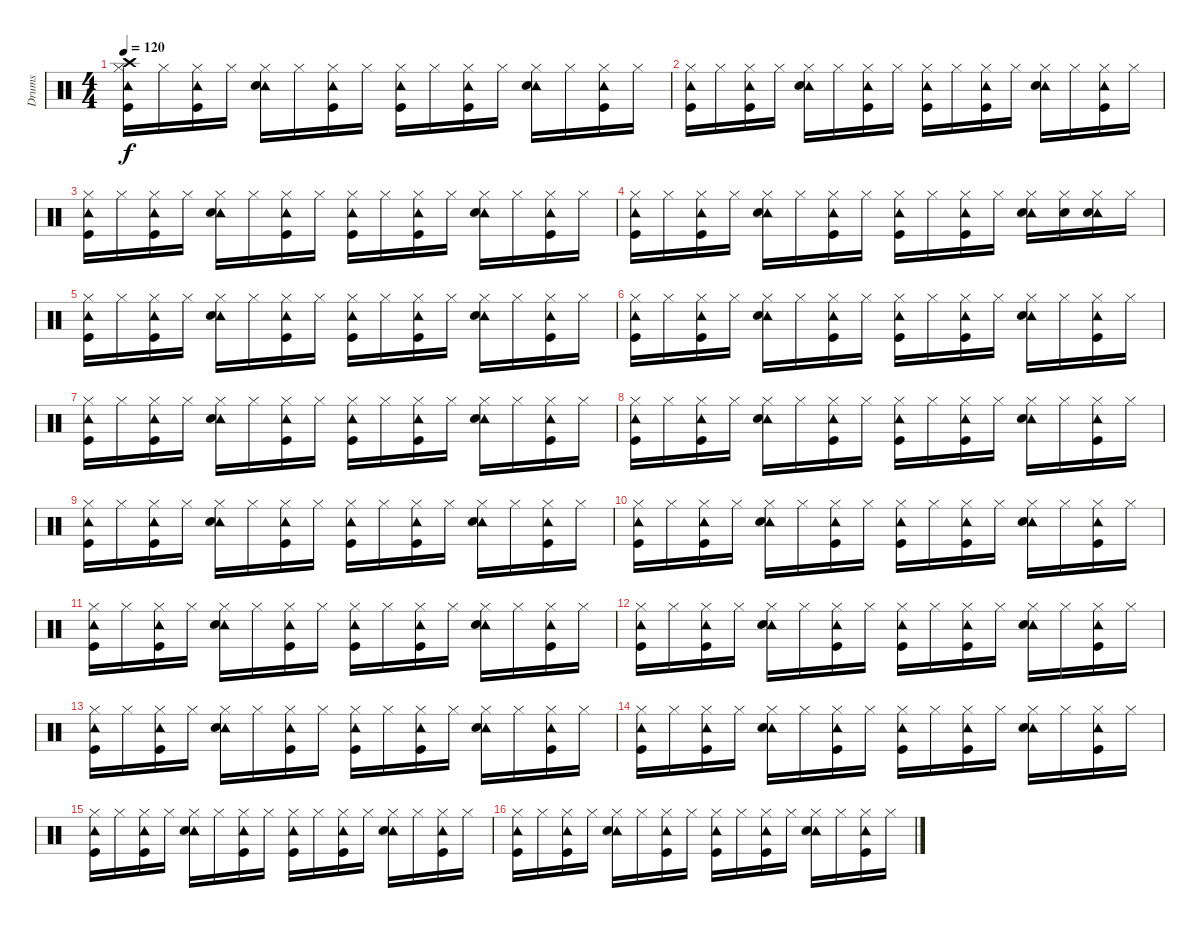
\track ("Drums" "Drums") {instrument percussion}
\staff {score}
\articulation defaults
\ts (4 4)
\tempo 120
\clef neutral
\ks c
("Crash high (hit)" "Hi-Hat (closed)" "Tambourine (hit)" "Kick (hit)").16{dy f} "Hi-Hat (closed)".16 ("Hi-Hat (closed)" "Tambourine (hit)" "Kick (hit)").16 "Hi-Hat (closed)".16 ("Hi-Hat (closed)" "Tambourine (hit)" "Snare (hit) 2").16 "Hi-Hat (closed)".16 ("Hi-Hat (closed)" "Tambourine (hit)" "Kick (hit)").16 "Hi-Hat (closed)".16 ("Hi-Hat (closed)" "Tambourine (hit)" "Kick (hit)").16 "Hi-Hat (closed)".16 ("Hi-Hat (closed)" "Tambourine (hit)" "Kick (hit)").16 "Hi-Hat (closed)".16 ("Hi-Hat (closed)" "Tambourine (hit)" "Snare (hit) 2").16 "Hi-Hat (closed)".16 ("Hi-Hat (closed)" "Tambourine (hit)" "Kick (hit)").16 "Hi-Hat (closed)".16 |
("Hi-Hat (closed)" "Tambourine (hit)" "Kick (hit)").16 "Hi-Hat (closed)".16 ("Hi-Hat (closed)" "Tambourine (hit)" "Kick (hit)").16 "Hi-Hat (closed)".16 ("Hi-Hat (closed)" "Tambourine (hit)" "Snare (hit) 2").16 "Hi-Hat (closed)".16 ("Hi-Hat (closed)" "Tambourine (hit)" "Kick (hit)").16 "Hi-Hat (closed)".16 ("Hi-Hat (closed)" "Tambourine (hit)" "Kick (hit)").16 "Hi-Hat (closed)".16 ("Hi-Hat (closed)" "Tambourine (hit)" "Kick (hit)").16 "Hi-Hat (closed)".16 ("Hi-Hat (closed)" "Tambourine (hit)" "Snare (hit) 2").16 "Hi-Hat (closed)".16 ("Hi-Hat (closed)" "Tambourine (hit)" "Kick (hit)").16 "Hi-Hat (closed)".16 |
("Hi-Hat (closed)" "Tambourine (hit)" "Kick (hit)").16 "Hi-Hat (closed)".16 ("Hi-Hat (closed)" "Tambourine (hit)" "Kick (hit)").16 "Hi-Hat (closed)".16 ("Hi-Hat (closed)" "Tambourine (hit)" "Snare (hit) 2").16 "Hi-Hat (closed)".16 ("Hi-Hat (closed)" "Tambourine (hit)" "Kick (hit)").16 "Hi-Hat (closed)".16 ("Hi-Hat (closed)" "Tambourine (hit)" "Kick (hit)").16 "Hi-Hat (closed)".16 ("Hi-Hat (closed)" "Tambourine (hit)" "Kick (hit)").16 "Hi-Hat (closed)".16 ("Hi-Hat (closed)" "Tambourine (hit)" "Snare (hit) 2").16 "Hi-Hat (closed)".16 ("Hi-Hat (closed)" "Tambourine (hit)" "Kick (hit)").16 "Hi-Hat (closed)".16 |
("Hi-Hat (closed)" "Tambourine (hit)" "Kick (hit)").16 "Hi-Hat (closed)".16 ("Hi-Hat (closed)" "Tambourine (hit)" "Kick (hit)").16 "Hi-Hat (closed)".16 ("Hi-Hat (closed)" "Tambourine (hit)" "Snare (hit) 2").16 "Hi-Hat (closed)".16 ("Hi-Hat (closed)" "Tambourine (hit)" "Kick (hit)").16 "Hi-Hat (closed)".16 ("Hi-Hat (closed)" "Tambourine (hit)" "Kick (hit)").16 "Hi-Hat (closed)".16 ("Hi-Hat (closed)" "Tambourine (hit)" "Kick (hit)").16 "Hi-Hat (closed)".16 ("Hi-Hat (closed)" "Tambourine (hit)" "Snare (hit) 2").16 ("Hi-Hat (closed)" "Snare (hit) 2").16 ("Hi-Hat (closed)" "Tambourine (hit)" "Snare (hit) 2").16 "Hi-Hat (closed)".16 |
("Hi-Hat (closed)" "Tambourine (hit)" "Kick (hit)").16 "Hi-Hat (closed)".16 ("Hi-Hat (closed)" "Tambourine (hit)" "Kick (hit)").16 "Hi-Hat (closed)".16 ("Hi-Hat (closed)" "Tambourine (hit)" "Snare (hit) 2").16 "Hi-Hat (closed)".16 ("Hi-Hat (closed)" "Tambourine (hit)" "Kick (hit)").16 "Hi-Hat (closed)".16 ("Hi-Hat (closed)" "Tambourine (hit)" "Kick (hit)").16 "Hi-Hat (closed)".16 ("Hi-Hat (closed)" "Tambourine (hit)" "Kick (hit)").16 "Hi-Hat (closed)".16 ("Hi-Hat (closed)" "Tambourine (hit)" "Snare (hit) 2").16 "Hi-Hat (closed)".16 ("Hi-Hat (closed)" "Tambourine (hit)" "Kick (hit)").16 "Hi-Hat (closed)".16 |
("Hi-Hat (closed)" "Tambourine (hit)" "Kick (hit)").16 "Hi-Hat (closed)".16 ("Hi-Hat (closed)" "Tambourine (hit)" "Kick (hit)").16 "Hi-Hat (closed)".16 ("Hi-Hat (closed)" "Tambourine (hit)" "Snare (hit) 2").16 "Hi-Hat (closed)".16 ("Hi-Hat (closed)" "Tambourine (hit)" "Kick (hit)").16 "Hi-Hat (closed)".16 ("Hi-Hat (closed)" "Tambourine (hit)" "Kick (hit)").16 "Hi-Hat (closed)".16 ("Hi-Hat (closed)" "Tambourine (hit)" "Kick (hit)").16 "Hi-Hat (closed)".16 ("Hi-Hat (closed)" "Tambourine (hit)" "Snare (hit) 2").16 "Hi-Hat (closed)".16 ("Hi-Hat (closed)" "Tambourine (hit)" "Kick (hit)").16 "Hi-Hat (closed)".16 |
("Hi-Hat (closed)" "Tambourine (hit)" "Kick (hit)").16 "Hi-Hat (closed)".16 ("Hi-Hat (closed)" "Tambourine (hit)" "Kick (hit)").16 "Hi-Hat (closed)".16 ("Hi-Hat (closed)" "Tambourine (hit)" "Snare (hit) 2").16 "Hi-Hat (closed)".16 ("Hi-Hat (closed)" "Tambourine (hit)" "Kick (hit)").16 "Hi-Hat (closed)".16 ("Hi-Hat (closed)" "Tambourine (hit)" "Kick (hit)").16 "Hi-Hat (closed)".16 ("Hi-Hat (closed)" "Tambourine (hit)" "Kick (hit)").16 "Hi-Hat (closed)".16 ("Hi-Hat (closed)" "Tambourine (hit)" "Snare (hit) 2").16 "Hi-Hat (closed)".16 ("Hi-Hat (closed)" "Tambourine (hit)" "Kick (hit)").16 "Hi-Hat (closed)".16 |
("Hi-Hat (closed)" "Tambourine (hit)" "Kick (hit)").16 "Hi-Hat (closed)".16 ("Hi-Hat (closed)" "Tambourine (hit)" "Kick (hit)").16 "Hi-Hat (closed)".16 ("Hi-Hat (closed)" "Tambourine (hit)" "Snare (hit) 2").16 "Hi-Hat (closed)".16 ("Hi-Hat (closed)" "Tambourine (hit)" "Kick (hit)").16 "Hi-Hat (closed)".16 ("Hi-Hat (closed)" "Tambourine (hit)" "Kick (hit)").16 "Hi-Hat (closed)".16 ("Hi-Hat (closed)" "Tambourine (hit)" "Kick (hit)").16 "Hi-Hat (closed)".16 ("Hi-Hat (closed)" "Tambourine (hit)" "Snare (hit) 2").16 "Hi-Hat (closed)".16 ("Hi-Hat (closed)" "Tambourine (hit)" "Kick (hit)").16 "Hi-Hat (closed)".16 |
("Hi-Hat (closed)" "Tambourine (hit)" "Kick (hit)").16 "Hi-Hat (closed)".16 ("Hi-Hat (closed)" "Tambourine (hit)" "Kick (hit)").16 "Hi-Hat (closed)".16 ("Hi-Hat (closed)" "Tambourine (hit)" "Snare (hit) 2").16 "Hi-Hat (closed)".16 ("Hi-Hat (closed)" "Tambourine (hit)" "Kick (hit)").16 "Hi-Hat (closed)".16 ("Hi-Hat (closed)" "Tambourine (hit)" "Kick (hit)").16 "Hi-Hat (closed)".16 ("Hi-Hat (closed)" "Tambourine (hit)" "Kick (hit)").16 "Hi-Hat (closed)".16 ("Hi-Hat (closed)" "Tambourine (hit)" "Snare (hit) 2").16 "Hi-Hat (closed)".16 ("Hi-Hat (closed)" "Tambourine (hit)" "Kick (hit)").16 "Hi-Hat (closed)".16 |
("Hi-Hat (closed)" "Tambourine (hit)" "Kick (hit)").16 "Hi-Hat (closed)".16 ("Hi-Hat (closed)" "Tambourine (hit)" "Kick (hit)").16 "Hi-Hat (closed)".16 ("Hi-Hat (closed)" "Tambourine (hit)" "Snare (hit) 2").16 "Hi-Hat (closed)".16 ("Hi-Hat (closed)" "Tambourine (hit)" "Kick (hit)").16 "Hi-Hat (closed)".16 ("Hi-Hat (closed)" "Tambourine (hit)" "Kick (hit)").16 "Hi-Hat (closed)".16 ("Hi-Hat (closed)" "Tambourine (hit)" "Kick (hit)").16 "Hi-Hat (closed)".16 ("Hi-Hat (closed)" "Tambourine (hit)" "Snare (hit) 2").16 "Hi-Hat (closed)".16 ("Hi-Hat (closed)" "Tambourine (hit)" "Kick (hit)").16 "Hi-Hat (closed)".16 |
("Hi-Hat (closed)" "Tambourine (hit)" "Kick (hit)").16 "Hi-Hat (closed)".16 ("Hi-Hat (closed)" "Tambourine (hit)" "Kick (hit)").16 "Hi-Hat (closed)".16 ("Hi-Hat (closed)" "Tambourine (hit)" "Snare (hit) 2").16 "Hi-Hat (closed)".16 ("Hi-Hat (closed)" "Tambourine (hit)" "Kick (hit)").16 "Hi-Hat (closed)".16 ("Hi-Hat (closed)" "Tambourine (hit)" "Kick (hit)").16 "Hi-Hat (closed)".16 ("Hi-Hat (closed)" "Tambourine (hit)" "Kick (hit)").16 "Hi-Hat (closed)".16 ("Hi-Hat (closed)" "Tambourine (hit)" "Snare (hit) 2").16 "Hi-Hat (closed)".16 ("Hi-Hat (closed)" "Tambourine (hit)" "Kick (hit)").16 "Hi-Hat (closed)".16 |
("Hi-Hat (closed)" "Tambourine (hit)" "Kick (hit)").16 "Hi-Hat (closed)".16 ("Hi-Hat (closed)" "Tambourine (hit)" "Kick (hit)").16 "Hi-Hat (closed)".16 ("Hi-Hat (closed)" "Tambourine (hit)" "Snare (hit) 2").16 "Hi-Hat (closed)".16 ("Hi-Hat (closed)" "Tambourine (hit)" "Kick (hit)").16 "Hi-Hat (closed)".16 ("Hi-Hat (closed)" "Tambourine (hit)" "Kick (hit)").16 "Hi-Hat (closed)".16 ("Hi-Hat (closed)" "Tambourine (hit)" "Kick (hit)").16 "Hi-Hat (closed)".16 ("Hi-Hat (closed)" "Tambourine (hit)" "Snare (hit) 2").16 "Hi-Hat (closed)".16 ("Hi-Hat (closed)" "Tambourine (hit)" "Kick (hit)").16 "Hi-Hat (closed)".16 |
("Hi-Hat (closed)" "Tambourine (hit)" "Kick (hit)").16 "Hi-Hat (closed)".16 ("Hi-Hat (closed)" "Tambourine (hit)" "Kick (hit)").16 "Hi-Hat (closed)".16 ("Hi-Hat (closed)" "Tambourine (hit)" "Snare (hit) 2").16 "Hi-Hat (closed)".16 ("Hi-Hat (closed)" "Tambourine (hit)" "Kick (hit)").16 "Hi-Hat (closed)".16 ("Hi-Hat (closed)" "Tambourine (hit)" "Kick (hit)").16 "Hi-Hat (closed)".16 ("Hi-Hat (closed)" "Tambourine (hit)" "Kick (hit)").16 "Hi-Hat (closed)".16 ("Hi-Hat (closed)" "Tambourine (hit)" "Snare (hit) 2").16 "Hi-Hat (closed)".16 ("Hi-Hat (closed)" "Tambourine (hit)" "Kick (hit)").16 "Hi-Hat (closed)".16 |
("Hi-Hat (closed)" "Tambourine (hit)" "Kick (hit)").16 "Hi-Hat (closed)".16 ("Hi-Hat (closed)" "Tambourine (hit)" "Kick (hit)").16 "Hi-Hat (closed)".16 ("Hi-Hat (closed)" "Tambourine (hit)" "Snare (hit) 2").16 "Hi-Hat (closed)".16 ("Hi-Hat (closed)" "Tambourine (hit)" "Kick (hit)").16 "Hi-Hat (closed)".16 ("Hi-Hat (closed)" "Tambourine (hit)" "Kick (hit)").16 "Hi-Hat (closed)".16 ("Hi-Hat (closed)" "Tambourine (hit)" "Kick (hit)").16 "Hi-Hat (closed)".16 ("Hi-Hat (closed)" "Tambourine (hit)" "Snare (hit) 2").16 "Hi-Hat (closed)".16 ("Hi-Hat (closed)" "Tambourine (hit)" "Kick (hit)").16 "Hi-Hat (closed)".16 |
("Hi-Hat (closed)" "Tambourine (hit)" "Kick (hit)").16 "Hi-Hat (closed)".16 ("Hi-Hat (closed)" "Tambourine (hit)" "Kick (hit)").16 "Hi-Hat (closed)".16 ("Hi-Hat (closed)" "Tambourine (hit)" "Snare (hit) 2").16 "Hi-Hat (closed)".16 ("Hi-Hat (closed)" "Tambourine (hit)" "Kick (hit)").16 "Hi-Hat (closed)".16 ("Hi-Hat (closed)" "Tambourine (hit)" "Kick (hit)").16 "Hi-Hat (closed)".16 ("Hi-Hat (closed)" "Tambourine (hit)" "Kick (hit)").16 "Hi-Hat (closed)".16 ("Hi-Hat (closed)" "Tambourine (hit)" "Snare (hit) 2").16 "Hi-Hat (closed)".16 ("Hi-Hat (closed)" "Tambourine (hit)" "Kick (hit)").16 "Hi-Hat (closed)".16 |
("Hi-Hat (closed)" "Tambourine (hit)" "Kick (hit)").16 "Hi-Hat (closed)".16 ("Hi-Hat (closed)" "Tambourine (hit)" "Kick (hit)").16 "Hi-Hat (closed)".16 ("Hi-Hat (closed)" "Tambourine (hit)" "Snare (hit) 2").16 "Hi-Hat (closed)".16 ("Hi-Hat (closed)" "Tambourine (hit)" "Kick (hit)").16 "Hi-Hat (closed)".16 ("Hi-Hat (closed)" "Tambourine (hit)" "Kick (hit)").16 "Hi-Hat (closed)".16 ("Hi-Hat (closed)" "Tambourine (hit)" "Kick (hit)").16 "Hi-Hat (closed)".16 ("Hi-Hat (closed)" "Tambourine (hit)" "Snare (hit) 2").16 "Hi-Hat (closed)".16 ("Hi-Hat (closed)" "Tambourine (hit)" "Kick (hit)").16 "Hi-Hat (closed)".16
